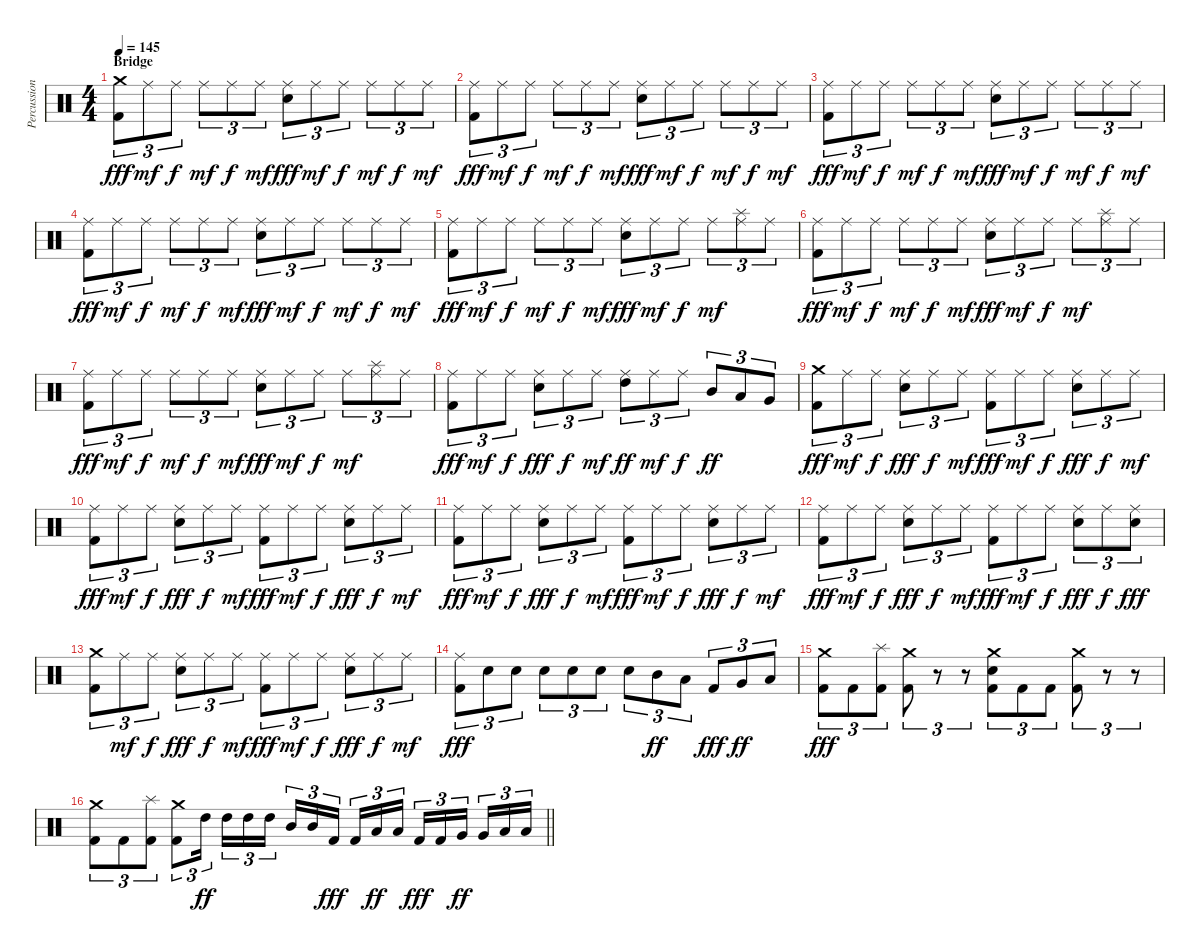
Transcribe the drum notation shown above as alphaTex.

\track ("Percussion" "Percussion") {instrument percussion}
\staff {score}
\articulation defaults
\ts (4 4)
\section ("" "Bridge")
\tempo 145
\clef neutral
\ks c
("Crash medium (hit)" "Kick (hit) 2").8{tu (3 2) dy fff} "Ride (middle)".8{tu (3 2) dy mf} "Ride (middle)".8{tu (3 2) dy f} "Ride (middle)".8{tu (3 2) dy mf} "Ride (middle)".8{tu (3 2) dy f} "Ride (middle)".8{tu (3 2) dy mf} ("Ride (middle)" "Electric Snare (hit)").8{tu (3 2) dy fff} "Ride (middle)".8{tu (3 2) dy mf} "Ride (middle)".8{tu (3 2) dy f} "Ride (middle)".8{tu (3 2) dy mf} "Ride (middle)".8{tu (3 2) dy f} "Ride (middle)".8{tu (3 2) dy mf} |
("Ride (middle)" "Kick (hit) 2").8{tu (3 2) dy fff} "Ride (middle)".8{tu (3 2) dy mf} "Ride (middle)".8{tu (3 2) dy f} "Ride (middle)".8{tu (3 2) dy mf} "Ride (middle)".8{tu (3 2) dy f} "Ride (middle)".8{tu (3 2) dy mf} ("Ride (middle)" "Electric Snare (hit)").8{tu (3 2) dy fff} "Ride (middle)".8{tu (3 2) dy mf} "Ride (middle)".8{tu (3 2) dy f} "Ride (middle)".8{tu (3 2) dy mf} "Ride (middle)".8{tu (3 2) dy f} "Ride (middle)".8{tu (3 2) dy mf} |
("Ride (middle)" "Kick (hit) 2").8{tu (3 2) dy fff} "Ride (middle)".8{tu (3 2) dy mf} "Ride (middle)".8{tu (3 2) dy f} "Ride (middle)".8{tu (3 2) dy mf} "Ride (middle)".8{tu (3 2) dy f} "Ride (middle)".8{tu (3 2) dy mf} ("Ride (middle)" "Electric Snare (hit)").8{tu (3 2) dy fff} "Ride (middle)".8{tu (3 2) dy mf} "Ride (middle)".8{tu (3 2) dy f} "Ride (middle)".8{tu (3 2) dy mf} "Ride (middle)".8{tu (3 2) dy f} "Ride (middle)".8{tu (3 2) dy mf} |
("Ride (middle)" "Kick (hit) 2").8{tu (3 2) dy fff} "Ride (middle)".8{tu (3 2) dy mf} "Ride (middle)".8{tu (3 2) dy f} "Ride (middle)".8{tu (3 2) dy mf} "Ride (middle)".8{tu (3 2) dy f} "Ride (middle)".8{tu (3 2) dy mf} ("Ride (middle)" "Electric Snare (hit)").8{tu (3 2) dy fff} "Ride (middle)".8{tu (3 2) dy mf} "Ride (middle)".8{tu (3 2) dy f} "Ride (middle)".8{tu (3 2) dy mf} "Ride (middle)".8{tu (3 2) dy f} "Ride (middle)".8{tu (3 2) dy mf} |
("Ride (middle)" "Kick (hit) 2").8{tu (3 2) dy fff} "Ride (middle)".8{tu (3 2) dy mf} "Ride (middle)".8{tu (3 2) dy f} "Ride (middle)".8{tu (3 2) dy mf} "Ride (middle)".8{tu (3 2) dy f} "Ride (middle)".8{tu (3 2) dy mf} ("Ride (middle)" "Electric Snare (hit)").8{tu (3 2) dy fff} "Ride (middle)".8{tu (3 2) dy mf} "Ride (middle)".8{tu (3 2) dy f} "Ride (middle)".8{tu (3 2) dy mf} ("Splash (hit)" "Ride (middle)").8{tu (3 2)} "Ride (middle)".8{tu (3 2)} |
("Ride (middle)" "Kick (hit) 2").8{tu (3 2) dy fff} "Ride (middle)".8{tu (3 2) dy mf} "Ride (middle)".8{tu (3 2) dy f} "Ride (middle)".8{tu (3 2) dy mf} "Ride (middle)".8{tu (3 2) dy f} "Ride (middle)".8{tu (3 2) dy mf} ("Ride (middle)" "Electric Snare (hit)").8{tu (3 2) dy fff} "Ride (middle)".8{tu (3 2) dy mf} "Ride (middle)".8{tu (3 2) dy f} "Ride (middle)".8{tu (3 2) dy mf} ("Splash (hit)" "Ride (middle)").8{tu (3 2)} "Ride (middle)".8{tu (3 2)} |
("Ride (middle)" "Kick (hit) 2").8{tu (3 2) dy fff} "Ride (middle)".8{tu (3 2) dy mf} "Ride (middle)".8{tu (3 2) dy f} "Ride (middle)".8{tu (3 2) dy mf} "Ride (middle)".8{tu (3 2) dy f} "Ride (middle)".8{tu (3 2) dy mf} ("Ride (middle)" "Electric Snare (hit)").8{tu (3 2) dy fff} "Ride (middle)".8{tu (3 2) dy mf} "Ride (middle)".8{tu (3 2) dy f} "Ride (middle)".8{tu (3 2) dy mf} ("Splash (hit)" "Ride (middle)").8{tu (3 2)} "Ride (middle)".8{tu (3 2)} |
("Ride (middle)" "Kick (hit) 2").8{tu (3 2) dy fff} "Ride (middle)".8{tu (3 2) dy mf} "Ride (middle)".8{tu (3 2) dy f} ("Ride (middle)" "Electric Snare (hit)").8{tu (3 2) dy fff} "Ride (middle)".8{tu (3 2) dy f} "Ride (middle)".8{tu (3 2) dy mf} ("Ride (middle)" "High Tom (hit)").8{tu (3 2) dy ff} "Ride (middle)".8{tu (3 2) dy mf} "Ride (middle)".8{tu (3 2) dy f} "Mid Tom (hit)".8{tu (3 2) dy ff} "Low Tom (hit)".8{tu (3 2)} "Very Low Tom (hit)".8{tu (3 2)} |
("Crash medium (hit)" "Kick (hit) 2").8{tu (3 2) dy fff} "Ride (middle)".8{tu (3 2) dy mf} "Ride (middle)".8{tu (3 2) dy f} ("Ride (middle)" "Electric Snare (hit)").8{tu (3 2) dy fff} "Ride (middle)".8{tu (3 2) dy f} "Ride (middle)".8{tu (3 2) dy mf} ("Ride (middle)" "Kick (hit) 2").8{tu (3 2) dy fff} "Ride (middle)".8{tu (3 2) dy mf} "Ride (middle)".8{tu (3 2) dy f} ("Ride (middle)" "Electric Snare (hit)").8{tu (3 2) dy fff} "Ride (middle)".8{tu (3 2) dy f} "Ride (middle)".8{tu (3 2) dy mf} |
("Ride (middle)" "Kick (hit) 2").8{tu (3 2) dy fff} "Ride (middle)".8{tu (3 2) dy mf} "Ride (middle)".8{tu (3 2) dy f} ("Ride (middle)" "Electric Snare (hit)").8{tu (3 2) dy fff} "Ride (middle)".8{tu (3 2) dy f} "Ride (middle)".8{tu (3 2) dy mf} ("Ride (middle)" "Kick (hit) 2").8{tu (3 2) dy fff} "Ride (middle)".8{tu (3 2) dy mf} "Ride (middle)".8{tu (3 2) dy f} ("Ride (middle)" "Electric Snare (hit)").8{tu (3 2) dy fff} "Ride (middle)".8{tu (3 2) dy f} "Ride (middle)".8{tu (3 2) dy mf} |
("Ride (middle)" "Kick (hit) 2").8{tu (3 2) dy fff} "Ride (middle)".8{tu (3 2) dy mf} "Ride (middle)".8{tu (3 2) dy f} ("Ride (middle)" "Electric Snare (hit)").8{tu (3 2) dy fff} "Ride (middle)".8{tu (3 2) dy f} "Ride (middle)".8{tu (3 2) dy mf} ("Ride (middle)" "Kick (hit) 2").8{tu (3 2) dy fff} "Ride (middle)".8{tu (3 2) dy mf} "Ride (middle)".8{tu (3 2) dy f} ("Ride (middle)" "Electric Snare (hit)").8{tu (3 2) dy fff} "Ride (middle)".8{tu (3 2) dy f} "Ride (middle)".8{tu (3 2) dy mf} |
("Ride (middle)" "Kick (hit) 2").8{tu (3 2) dy fff} "Ride (middle)".8{tu (3 2) dy mf} "Ride (middle)".8{tu (3 2) dy f} ("Ride (middle)" "Electric Snare (hit)").8{tu (3 2) dy fff} "Ride (middle)".8{tu (3 2) dy f} "Ride (middle)".8{tu (3 2) dy mf} ("Ride (middle)" "Kick (hit) 2").8{tu (3 2) dy fff} "Ride (middle)".8{tu (3 2) dy mf} "Ride (middle)".8{tu (3 2) dy f} ("Ride (middle)" "Electric Snare (hit)").8{tu (3 2) dy fff} "Ride (middle)".8{tu (3 2) dy f} ("Ride (middle)" "Electric Snare (hit)").8{tu (3 2) dy fff} |
("Crash medium (hit)" "Kick (hit) 2").8{tu (3 2)} "Ride (middle)".8{tu (3 2) dy mf} "Ride (middle)".8{tu (3 2) dy f} ("Ride (middle)" "Electric Snare (hit)").8{tu (3 2) dy fff} "Ride (middle)".8{tu (3 2) dy f} "Ride (middle)".8{tu (3 2) dy mf} ("Ride (middle)" "Kick (hit) 2").8{tu (3 2) dy fff} "Ride (middle)".8{tu (3 2) dy mf} "Ride (middle)".8{tu (3 2) dy f} ("Ride (middle)" "Electric Snare (hit)").8{tu (3 2) dy fff} "Ride (middle)".8{tu (3 2) dy f} "Ride (middle)".8{tu (3 2) dy mf} |
("Ride (middle)" "Kick (hit) 2").8{tu (3 2) dy fff} "Electric Snare (hit)".8{tu (3 2)} "Electric Snare (hit)".8{tu (3 2)} "Electric Snare (hit)".8{tu (3 2)} "Electric Snare (hit)".8{tu (3 2)} "Electric Snare (hit)".8{tu (3 2)} "Electric Snare (hit)".8{tu (3 2)} "Mid Tom (hit)".8{tu (3 2) dy ff} "Low Tom (hit)".8{tu (3 2)} "Kick (hit) 2".8{tu (3 2) dy fff} "Very Low Tom (hit)".8{tu (3 2) dy ff} "Low Floor Tom (hit)".8{tu (3 2)} |
("Crash medium (hit)" "Kick (hit) 2").8{tu (3 2) dy fff} "Kick (hit) 2".8{tu (3 2)} ("Splash (hit)" "Kick (hit) 2").8{tu (3 2)} ("Crash medium (hit)" "Kick (hit) 2").8{tu (3 2)} r.8{tu (3 2)} r.8{tu (3 2)} ("Crash medium (hit)" "Electric Snare (hit)" "Kick (hit) 2").8{tu (3 2)} "Kick (hit) 2".8{tu (3 2)} "Kick (hit) 2".8{tu (3 2)} ("Crash medium (hit)" "Kick (hit) 2").8{tu (3 2)} r.8{tu (3 2)} r.8{tu (3 2)} |
\barLineRight lightlight
("Crash medium (hit)" "Kick (hit) 2").8{tu (3 2)} "Kick (hit) 2".8{tu (3 2)} ("Splash (hit)" "Kick (hit) 2").8{tu (3 2)} ("Crash medium (hit)" "Kick (hit) 2").8{tu (3 2)} "High Tom (hit)".16{tu (3 2) dy ff beam splitsecondary} "High Tom (hit)".16{tu (3 2)} "High Tom (hit)".16{tu (3 2)} "High Tom (hit)".16{tu (3 2)} "Mid Tom (hit)".16{tu (3 2)} "Mid Tom (hit)".16{tu (3 2)} "Kick (hit) 2".16{tu (3 2) dy fff beam splitsecondary} "Kick (hit) 2".16{tu (3 2)} "Low Tom (hit)".16{tu (3 2) dy ff} "Low Tom (hit)".16{tu (3 2)} "Kick (hit) 2".16{tu (3 2) dy fff} "Kick (hit) 2".16{tu (3 2)} "Very Low Tom (hit)".16{tu (3 2) dy ff beam splitsecondary} "Very Low Tom (hit)".16{tu (3 2)} "Low Floor Tom (hit)".16{tu (3 2)} "Low Floor Tom (hit)".16{tu (3 2)}
